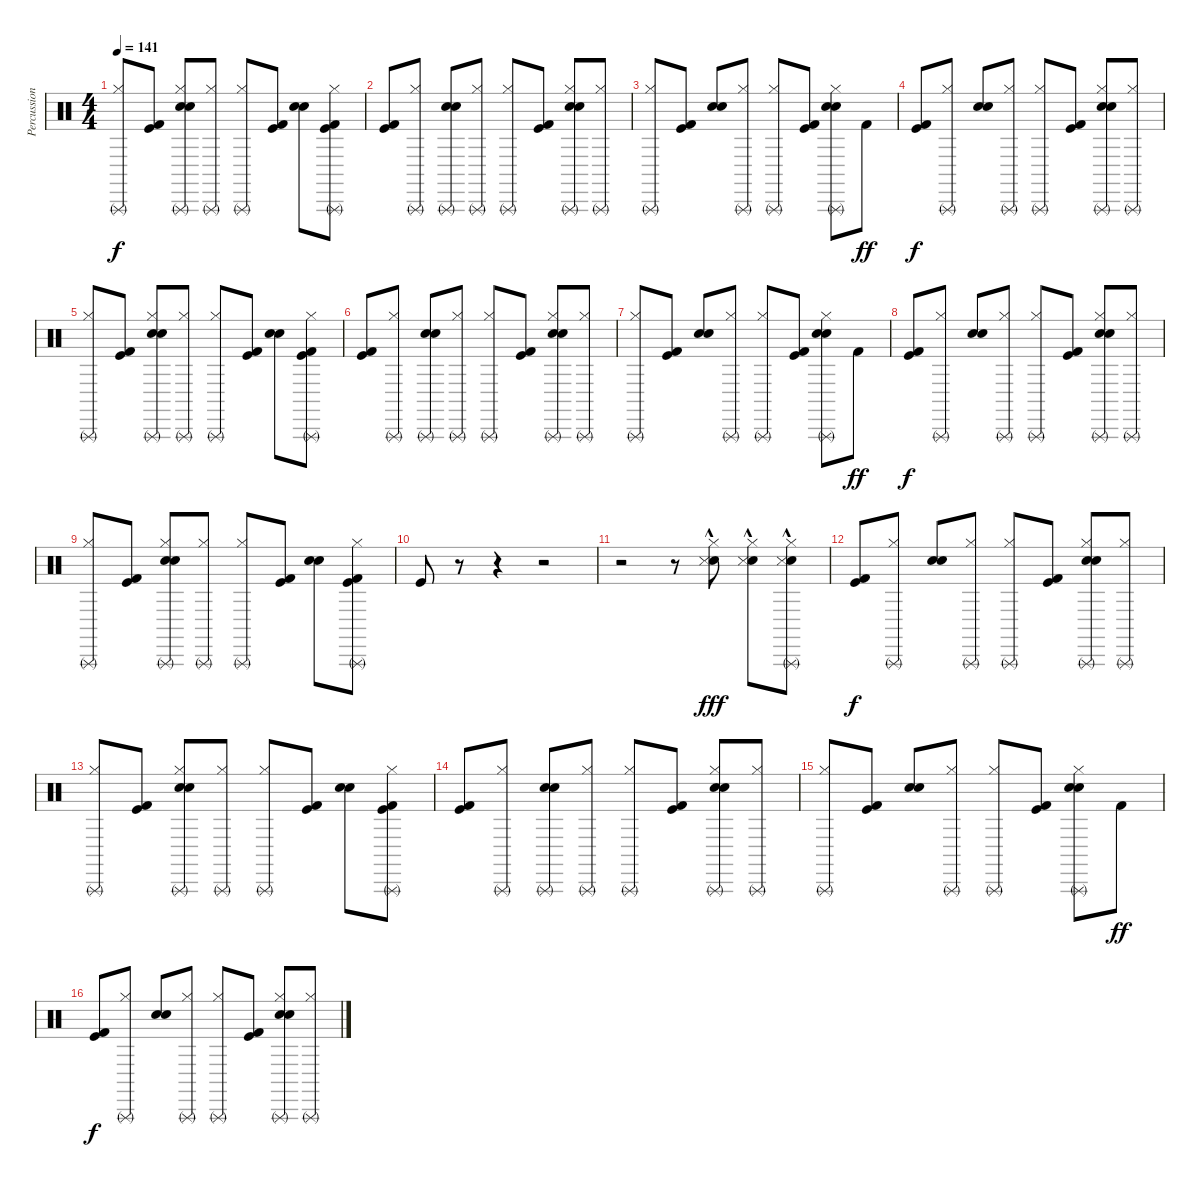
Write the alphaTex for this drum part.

\track ("Percussion" "Percussion") {instrument percussion}
\staff {score}
\articulation defaults
\ts (4 4)
\tempo 141
\clef neutral
\ks c
("Hi-Hat (closed)" "Triangle (rnute)").8{dy f} ("Kick (hit)" "Kick (hit) 2").8 ("Snare (hit) 2" "Electric Snare (hit)" "Hi-Hat (closed)" "Triangle (rnute)").8 ("Hi-Hat (closed)" "Triangle (rnute)").8 ("Hi-Hat (closed)" "Triangle (rnute)").8 ("Kick (hit)" "Kick (hit) 2").8 ("Snare (hit) 2" "Electric Snare (hit)").8 ("Kick (hit)" "Kick (hit) 2" "Hi-Hat (closed)" "Triangle (rnute)").8 |
("Kick (hit)" "Kick (hit) 2").8 ("Hi-Hat (closed)" "Triangle (rnute)").8 ("Snare (hit) 2" "Electric Snare (hit)" "Triangle (rnute)").8 ("Hi-Hat (closed)" "Triangle (rnute)").8 ("Hi-Hat (closed)" "Triangle (rnute)").8 ("Kick (hit)" "Kick (hit) 2").8 ("Snare (hit) 2" "Electric Snare (hit)" "Hi-Hat (closed)" "Triangle (rnute)").8 ("Hi-Hat (closed)" "Triangle (rnute)").8 |
("Hi-Hat (closed)" "Triangle (rnute)").8 ("Kick (hit)" "Kick (hit) 2").8 ("Snare (hit) 2" "Electric Snare (hit)").8 ("Hi-Hat (closed)" "Triangle (rnute)").8 ("Hi-Hat (closed)" "Triangle (rnute)").8 ("Kick (hit)" "Kick (hit) 2").8 ("Snare (hit) 2" "Electric Snare (hit)" "Hi-Hat (closed)" "Triangle (rnute)").8 "Kick (hit) 2".8{dy ff} |
("Kick (hit)" "Kick (hit) 2").8{dy f} ("Hi-Hat (closed)" "Triangle (rnute)").8 ("Snare (hit) 2" "Electric Snare (hit)").8 ("Hi-Hat (closed)" "Triangle (rnute)").8 ("Hi-Hat (closed)" "Triangle (rnute)").8 ("Kick (hit)" "Kick (hit) 2").8 ("Snare (hit) 2" "Electric Snare (hit)" "Hi-Hat (closed)" "Triangle (rnute)").8 ("Hi-Hat (closed)" "Triangle (rnute)").8 |
("Hi-Hat (closed)" "Triangle (rnute)").8 ("Kick (hit)" "Kick (hit) 2").8 ("Snare (hit) 2" "Electric Snare (hit)" "Hi-Hat (closed)" "Triangle (rnute)").8 ("Hi-Hat (closed)" "Triangle (rnute)").8 ("Hi-Hat (closed)" "Triangle (rnute)").8 ("Kick (hit)" "Kick (hit) 2").8 ("Snare (hit) 2" "Electric Snare (hit)").8 ("Kick (hit)" "Kick (hit) 2" "Hi-Hat (closed)" "Triangle (rnute)").8 |
("Kick (hit)" "Kick (hit) 2").8 ("Hi-Hat (closed)" "Triangle (rnute)").8 ("Snare (hit) 2" "Electric Snare (hit)" "Triangle (rnute)").8 ("Hi-Hat (closed)" "Triangle (rnute)").8 ("Hi-Hat (closed)" "Triangle (rnute)").8 ("Kick (hit)" "Kick (hit) 2").8 ("Snare (hit) 2" "Electric Snare (hit)" "Hi-Hat (closed)" "Triangle (rnute)").8 ("Hi-Hat (closed)" "Triangle (rnute)").8 |
("Hi-Hat (closed)" "Triangle (rnute)").8 ("Kick (hit)" "Kick (hit) 2").8 ("Snare (hit) 2" "Electric Snare (hit)").8 ("Hi-Hat (closed)" "Triangle (rnute)").8 ("Hi-Hat (closed)" "Triangle (rnute)").8 ("Kick (hit)" "Kick (hit) 2").8 ("Snare (hit) 2" "Electric Snare (hit)" "Hi-Hat (closed)" "Triangle (rnute)").8 "Kick (hit) 2".8{dy ff} |
("Kick (hit)" "Kick (hit) 2").8{dy f} ("Hi-Hat (closed)" "Triangle (rnute)").8 ("Snare (hit) 2" "Electric Snare (hit)").8 ("Hi-Hat (closed)" "Triangle (rnute)").8 ("Hi-Hat (closed)" "Triangle (rnute)").8 ("Kick (hit)" "Kick (hit) 2").8 ("Snare (hit) 2" "Electric Snare (hit)" "Hi-Hat (closed)" "Triangle (rnute)").8 ("Hi-Hat (closed)" "Triangle (rnute)").8 |
("Hi-Hat (closed)" "Triangle (rnute)").8 ("Kick (hit)" "Kick (hit) 2").8 ("Snare (hit) 2" "Electric Snare (hit)" "Hi-Hat (closed)" "Triangle (rnute)").8 ("Hi-Hat (closed)" "Triangle (rnute)").8 ("Hi-Hat (closed)" "Triangle (rnute)").8 ("Kick (hit)" "Kick (hit) 2").8 ("Snare (hit) 2" "Electric Snare (hit)").8 ("Kick (hit)" "Kick (hit) 2" "Hi-Hat (closed)" "Triangle (rnute)").8 |
"Kick (hit)".8 r.8 r.4 r.2 |
r.2 r.8 ("Electric Snare (hit)"{hac} "Hi-Hat (closed)"{hac} "Metronome (hit)"{hac}).8{dy fff} ("Electric Snare (hit)"{hac} "Hi-Hat (closed)"{hac} "Metronome (hit)"{hac}).8 ("Electric Snare (hit)"{hac} "Hi-Hat (closed)"{hac} "Metronome (hit)"{hac} "Triangle (rnute)"{hac}).8 |
("Kick (hit)" "Kick (hit) 2").8{dy f} ("Hi-Hat (closed)" "Triangle (rnute)").8 ("Snare (hit) 2" "Electric Snare (hit)").8 ("Hi-Hat (closed)" "Triangle (rnute)").8 ("Hi-Hat (closed)" "Triangle (rnute)").8 ("Kick (hit)" "Kick (hit) 2").8 ("Snare (hit) 2" "Electric Snare (hit)" "Hi-Hat (closed)" "Triangle (rnute)").8 ("Hi-Hat (closed)" "Triangle (rnute)").8 |
("Hi-Hat (closed)" "Triangle (rnute)").8 ("Kick (hit)" "Kick (hit) 2").8 ("Snare (hit) 2" "Electric Snare (hit)" "Hi-Hat (closed)" "Triangle (rnute)").8 ("Hi-Hat (closed)" "Triangle (rnute)").8 ("Hi-Hat (closed)" "Triangle (rnute)").8 ("Kick (hit)" "Kick (hit) 2").8 ("Snare (hit) 2" "Electric Snare (hit)").8 ("Kick (hit)" "Kick (hit) 2" "Hi-Hat (closed)" "Triangle (rnute)").8 |
("Kick (hit)" "Kick (hit) 2").8 ("Hi-Hat (closed)" "Triangle (rnute)").8 ("Snare (hit) 2" "Electric Snare (hit)" "Triangle (rnute)").8 ("Hi-Hat (closed)" "Triangle (rnute)").8 ("Hi-Hat (closed)" "Triangle (rnute)").8 ("Kick (hit)" "Kick (hit) 2").8 ("Snare (hit) 2" "Electric Snare (hit)" "Hi-Hat (closed)" "Triangle (rnute)").8 ("Hi-Hat (closed)" "Triangle (rnute)").8 |
("Hi-Hat (closed)" "Triangle (rnute)").8 ("Kick (hit)" "Kick (hit) 2").8 ("Snare (hit) 2" "Electric Snare (hit)").8 ("Hi-Hat (closed)" "Triangle (rnute)").8 ("Hi-Hat (closed)" "Triangle (rnute)").8 ("Kick (hit)" "Kick (hit) 2").8 ("Snare (hit) 2" "Electric Snare (hit)" "Hi-Hat (closed)" "Triangle (rnute)").8 "Kick (hit) 2".8{dy ff} |
("Kick (hit)" "Kick (hit) 2").8{dy f} ("Hi-Hat (closed)" "Triangle (rnute)").8 ("Snare (hit) 2" "Electric Snare (hit)").8 ("Hi-Hat (closed)" "Triangle (rnute)").8 ("Hi-Hat (closed)" "Triangle (rnute)").8 ("Kick (hit)" "Kick (hit) 2").8 ("Snare (hit) 2" "Electric Snare (hit)" "Hi-Hat (closed)" "Triangle (rnute)").8 ("Hi-Hat (closed)" "Triangle (rnute)").8
